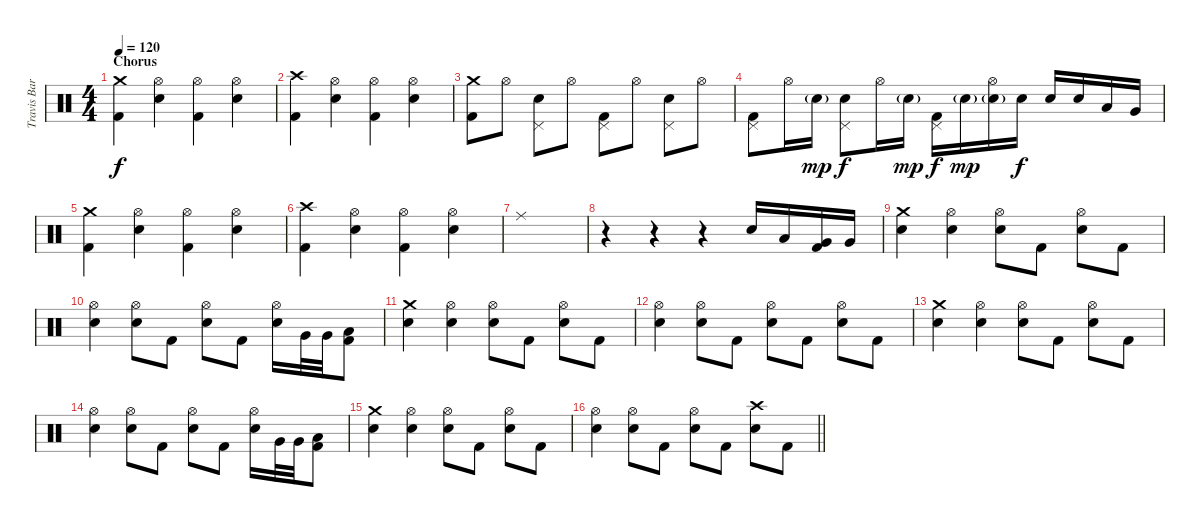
\track ("Travis Barker - Drums" "Travis Bar") {instrument percussion}
\staff {score}
\articulation defaults
\ts (4 4)
\section ("" "Chorus")
\tempo 120
\clef neutral
\ks c
("Crash medium (hit)" "Kick (hit) 2").4{dy f} ("Hi-Hat (open)" "Electric Snare (hit)").4 ("Hi-Hat (open)" "Kick (hit) 2").4 ("Hi-Hat (open)" "Electric Snare (hit)").4 |
("Crash high (hit)" "Kick (hit) 2").4 ("Hi-Hat (open)" "Electric Snare (hit)").4 ("Hi-Hat (open)" "Kick (hit) 2").4 ("Hi-Hat (open)" "Electric Snare (hit)").4 |
("Crash medium (hit)" "Kick (hit) 2").8 "Hi-Hat (open)".8 ("Pedal Hi-Hat (hit)" "Electric Snare (hit)").8 "Hi-Hat (open)".8 ("Pedal Hi-Hat (hit)" "Kick (hit) 2").8 "Hi-Hat (open)".8 ("Pedal Hi-Hat (hit)" "Electric Snare (hit)").8 "Hi-Hat (open)".8 |
("Pedal Hi-Hat (hit)" "Kick (hit) 2").8 "Hi-Hat (open)".16 "Electric Snare (hit)"{g}.16{dy mp} ("Pedal Hi-Hat (hit)" "Electric Snare (hit)").8{dy f} "Hi-Hat (open)".16 "Electric Snare (hit)"{g}.16{dy mp} ("Pedal Hi-Hat (hit)" "Kick (hit) 2").16{dy f} "Electric Snare (hit)"{g}.16{dy mp} ("Hi-Hat (open)" "Electric Snare (hit)"{g}).16 "Electric Snare (hit)".16{dy f} "Electric Snare (hit)".16 "Electric Snare (hit)".16 "Low Tom (hit)".16 "Very Low Tom (hit)".16 |
("Crash medium (hit)" "Kick (hit) 2").4 ("Hi-Hat (open)" "Electric Snare (hit)").4 ("Hi-Hat (open)" "Kick (hit) 2").4 ("Hi-Hat (open)" "Electric Snare (hit)").4 |
("Crash high (hit)" "Kick (hit) 2").4 ("Hi-Hat (open)" "Electric Snare (hit)").4 ("Hi-Hat (open)" "Kick (hit) 2").4 ("Hi-Hat (open)" "Electric Snare (hit)").4 |
"Ride (middle)".1 |
r.4 r.4 r.4 "Electric Snare (hit)".16 "Low Tom (hit)".16 ("Very Low Tom (hit)" "Kick (hit) 2").16 "Very Low Tom (hit)".16 |
("Crash medium (hit)" "Electric Snare (hit)").4 ("Hi-Hat (open)" "Electric Snare (hit)").4 ("Hi-Hat (open)" "Electric Snare (hit)").8 "Kick (hit) 2".8 ("Hi-Hat (open)" "Electric Snare (hit)").8 "Kick (hit) 2".8 |
("Hi-Hat (open)" "Electric Snare (hit)").4 ("Hi-Hat (open)" "Electric Snare (hit)").8 "Kick (hit) 2".8 ("Hi-Hat (open)" "Electric Snare (hit)").8 "Kick (hit) 2".8 ("Hi-Hat (open)" "Electric Snare (hit)").16 "Very Low Tom (hit)".32 "Very Low Tom (hit)".32 ("Low Floor Tom (hit)" "Kick (hit) 2").8 |
("Crash medium (hit)" "Electric Snare (hit)").4 ("Hi-Hat (open)" "Electric Snare (hit)").4 ("Hi-Hat (open)" "Electric Snare (hit)").8 "Kick (hit) 2".8 ("Hi-Hat (open)" "Electric Snare (hit)").8 "Kick (hit) 2".8 |
("Hi-Hat (open)" "Electric Snare (hit)").4 ("Hi-Hat (open)" "Electric Snare (hit)").8 "Kick (hit) 2".8 ("Hi-Hat (open)" "Electric Snare (hit)").8 "Kick (hit) 2".8 ("Hi-Hat (open)" "Electric Snare (hit)").8 "Kick (hit) 2".8 |
("Crash medium (hit)" "Electric Snare (hit)").4 ("Hi-Hat (open)" "Electric Snare (hit)").4 ("Hi-Hat (open)" "Electric Snare (hit)").8 "Kick (hit) 2".8 ("Hi-Hat (open)" "Electric Snare (hit)").8 "Kick (hit) 2".8 |
("Hi-Hat (open)" "Electric Snare (hit)").4 ("Hi-Hat (open)" "Electric Snare (hit)").8 "Kick (hit) 2".8 ("Hi-Hat (open)" "Electric Snare (hit)").8 "Kick (hit) 2".8 ("Hi-Hat (open)" "Electric Snare (hit)").16 "Very Low Tom (hit)".32 "Very Low Tom (hit)".32 ("Low Floor Tom (hit)" "Kick (hit) 2").8 |
("Crash medium (hit)" "Electric Snare (hit)").4 ("Hi-Hat (open)" "Electric Snare (hit)").4 ("Hi-Hat (open)" "Electric Snare (hit)").8 "Kick (hit) 2".8 ("Hi-Hat (open)" "Electric Snare (hit)").8 "Kick (hit) 2".8 |
\barLineRight lightlight
("Hi-Hat (open)" "Electric Snare (hit)").4 ("Hi-Hat (open)" "Electric Snare (hit)").8 "Kick (hit) 2".8 ("Hi-Hat (open)" "Electric Snare (hit)").8 "Kick (hit) 2".8 ("Crash high (hit)" "Electric Snare (hit)").8 "Kick (hit) 2".8
